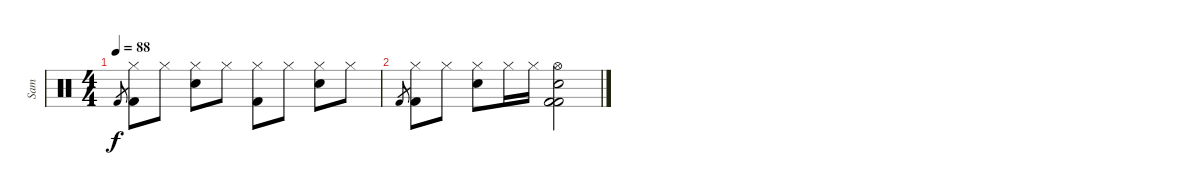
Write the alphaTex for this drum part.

\track ("Sam" "Sam") {instrument percussion}
\staff {score}
\articulation defaults
\ts (4 4)
\tempo 88
\clef neutral
\ks c "Kick (hit) 2".8{gr dy f}
("Hi-Hat (closed)" "Kick (hit) 2").8 "Hi-Hat (closed)".8 ("Hi-Hat (closed)" "Electric Snare (hit)").8 "Hi-Hat (closed)".8 ("Hi-Hat (closed)" "Kick (hit) 2").8 "Hi-Hat (closed)".8 ("Hi-Hat (closed)" "Electric Snare (hit)").8 "Hi-Hat (closed)".8 |
"Kick (hit) 2".8{gr} ("Hi-Hat (closed)" "Kick (hit) 2").8 "Hi-Hat (closed)".8 ("Hi-Hat (closed)" "Electric Snare (hit)").8 "Hi-Hat (closed)".16 "Hi-Hat (closed)".16 ("Hi-Hat (open)" "Electric Snare (hit)" "Kick (hit) 2" "Kick (hit) 2").2
